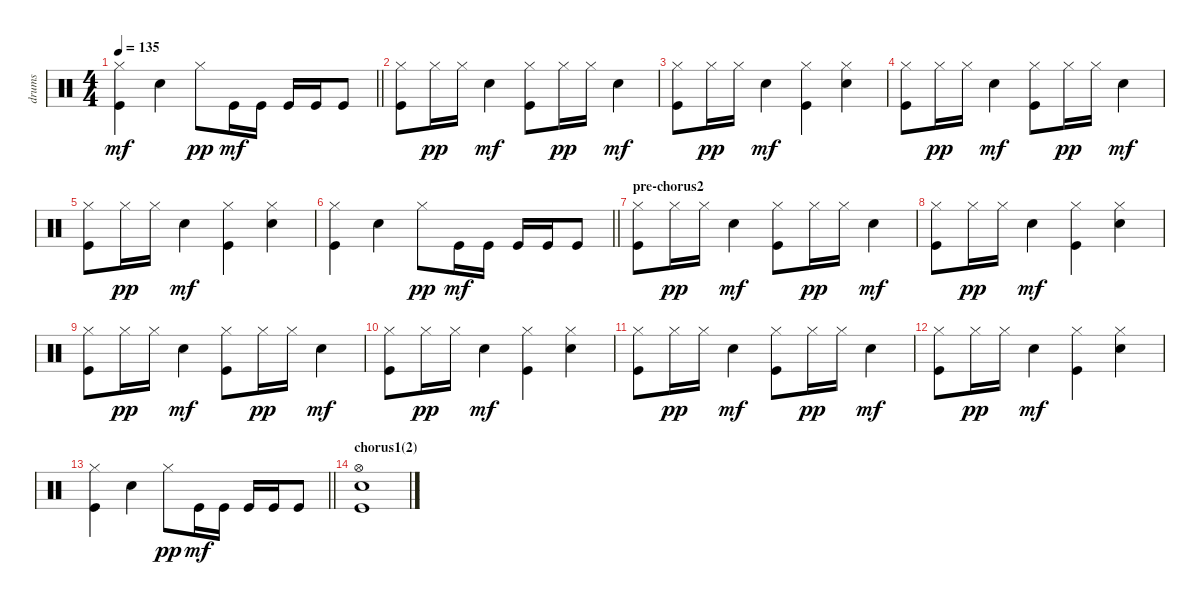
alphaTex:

\track ("drums" "drums") {instrument percussion}
\staff {score}
\articulation defaults
\ts (4 4)
\tempo 135
\clef neutral
\barLineRight lightlight
\ks c
("Hi-Hat (closed)" "Kick (hit)").4{dy mf} "Snare (hit) 2".4 "Hi-Hat (closed)".8{dy pp} "Kick (hit)".16{dy mf} "Kick (hit)".16 "Kick (hit)".16 "Kick (hit)".16 "Kick (hit)".8 |
("Hi-Hat (closed)" "Kick (hit)").8 "Hi-Hat (closed)".16{dy pp} "Hi-Hat (closed)".16 "Snare (hit) 2".4{dy mf} ("Hi-Hat (closed)" "Kick (hit)").8 "Hi-Hat (closed)".16{dy pp} "Hi-Hat (closed)".16 "Snare (hit) 2".4{dy mf} |
("Hi-Hat (closed)" "Kick (hit)").8 "Hi-Hat (closed)".16{dy pp} "Hi-Hat (closed)".16 "Snare (hit) 2".4{dy mf} ("Hi-Hat (closed)" "Kick (hit)").4 ("Hi-Hat (closed)" "Snare (hit) 2").4 |
("Hi-Hat (closed)" "Kick (hit)").8 "Hi-Hat (closed)".16{dy pp} "Hi-Hat (closed)".16 "Snare (hit) 2".4{dy mf} ("Hi-Hat (closed)" "Kick (hit)").8 "Hi-Hat (closed)".16{dy pp} "Hi-Hat (closed)".16 "Snare (hit) 2".4{dy mf} |
("Hi-Hat (closed)" "Kick (hit)").8 "Hi-Hat (closed)".16{dy pp} "Hi-Hat (closed)".16 "Snare (hit) 2".4{dy mf} ("Hi-Hat (closed)" "Kick (hit)").4 ("Hi-Hat (closed)" "Snare (hit) 2").4 |
\barLineRight lightlight
("Hi-Hat (closed)" "Kick (hit)").4 "Snare (hit) 2".4 "Hi-Hat (closed)".8{dy pp} "Kick (hit)".16{dy mf} "Kick (hit)".16 "Kick (hit)".16 "Kick (hit)".16 "Kick (hit)".8 |
\section ("" "pre-chorus2")
("Hi-Hat (closed)" "Kick (hit)").8 "Hi-Hat (closed)".16{dy pp} "Hi-Hat (closed)".16 "Snare (hit) 2".4{dy mf} ("Hi-Hat (closed)" "Kick (hit)").8 "Hi-Hat (closed)".16{dy pp} "Hi-Hat (closed)".16 "Snare (hit) 2".4{dy mf} |
("Hi-Hat (closed)" "Kick (hit)").8 "Hi-Hat (closed)".16{dy pp} "Hi-Hat (closed)".16 "Snare (hit) 2".4{dy mf} ("Hi-Hat (closed)" "Kick (hit)").4 ("Hi-Hat (closed)" "Snare (hit) 2").4 |
("Hi-Hat (closed)" "Kick (hit)").8 "Hi-Hat (closed)".16{dy pp} "Hi-Hat (closed)".16 "Snare (hit) 2".4{dy mf} ("Hi-Hat (closed)" "Kick (hit)").8 "Hi-Hat (closed)".16{dy pp} "Hi-Hat (closed)".16 "Snare (hit) 2".4{dy mf} |
("Hi-Hat (closed)" "Kick (hit)").8 "Hi-Hat (closed)".16{dy pp} "Hi-Hat (closed)".16 "Snare (hit) 2".4{dy mf} ("Hi-Hat (closed)" "Kick (hit)").4 ("Hi-Hat (closed)" "Snare (hit) 2").4 |
("Hi-Hat (closed)" "Kick (hit)").8 "Hi-Hat (closed)".16{dy pp} "Hi-Hat (closed)".16 "Snare (hit) 2".4{dy mf} ("Hi-Hat (closed)" "Kick (hit)").8 "Hi-Hat (closed)".16{dy pp} "Hi-Hat (closed)".16 "Snare (hit) 2".4{dy mf} |
("Hi-Hat (closed)" "Kick (hit)").8 "Hi-Hat (closed)".16{dy pp} "Hi-Hat (closed)".16 "Snare (hit) 2".4{dy mf} ("Hi-Hat (closed)" "Kick (hit)").4 ("Hi-Hat (closed)" "Snare (hit) 2").4 |
\barLineRight lightlight
("Hi-Hat (closed)" "Kick (hit)").4 "Snare (hit) 2".4 "Hi-Hat (closed)".8{dy pp} "Kick (hit)".16{dy mf} "Kick (hit)".16 "Kick (hit)".16 "Kick (hit)".16 "Kick (hit)".8 |
\section ("" "chorus1(2)")
("Hi-Hat (open)" "Snare (hit) 2" "Kick (hit)").1
